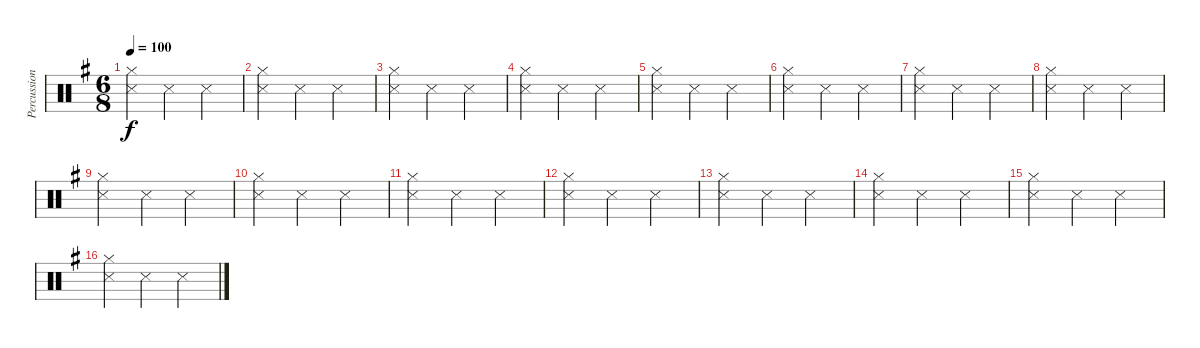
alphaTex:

\track ("Percussion" "Percussion") {mute instrument percussion}
\staff {score}
\articulation defaults
\ts (6 8)
\tempo 100
\clef neutral
\ks g
("Hi-Hat (closed)" "Snare (side stick) 3").4{dy f} "Snare (side stick) 3".4 "Snare (side stick) 3".4 |
("Hi-Hat (closed)" "Snare (side stick) 3").4 "Snare (side stick) 3".4 "Snare (side stick) 3".4 |
("Hi-Hat (closed)" "Snare (side stick) 3").4 "Snare (side stick) 3".4 "Snare (side stick) 3".4 |
("Hi-Hat (closed)" "Snare (side stick) 3").4 "Snare (side stick) 3".4 "Snare (side stick) 3".4 |
("Hi-Hat (closed)" "Snare (side stick) 3").4 "Snare (side stick) 3".4 "Snare (side stick) 3".4 |
("Hi-Hat (closed)" "Snare (side stick) 3").4 "Snare (side stick) 3".4 "Snare (side stick) 3".4 |
("Hi-Hat (closed)" "Snare (side stick) 3").4 "Snare (side stick) 3".4 "Snare (side stick) 3".4 |
("Hi-Hat (closed)" "Snare (side stick) 3").4 "Snare (side stick) 3".4 "Snare (side stick) 3".4 |
("Hi-Hat (closed)" "Snare (side stick) 3").4 "Snare (side stick) 3".4 "Snare (side stick) 3".4 |
("Hi-Hat (closed)" "Snare (side stick) 3").4 "Snare (side stick) 3".4 "Snare (side stick) 3".4 |
("Hi-Hat (closed)" "Snare (side stick) 3").4 "Snare (side stick) 3".4 "Snare (side stick) 3".4 |
("Hi-Hat (closed)" "Snare (side stick) 3").4 "Snare (side stick) 3".4 "Snare (side stick) 3".4 |
("Hi-Hat (closed)" "Snare (side stick) 3").4 "Snare (side stick) 3".4 "Snare (side stick) 3".4 |
("Hi-Hat (closed)" "Snare (side stick) 3").4 "Snare (side stick) 3".4 "Snare (side stick) 3".4 |
("Hi-Hat (closed)" "Snare (side stick) 3").4 "Snare (side stick) 3".4 "Snare (side stick) 3".4 |
("Hi-Hat (closed)" "Snare (side stick) 3").4 "Snare (side stick) 3".4 "Snare (side stick) 3".4
